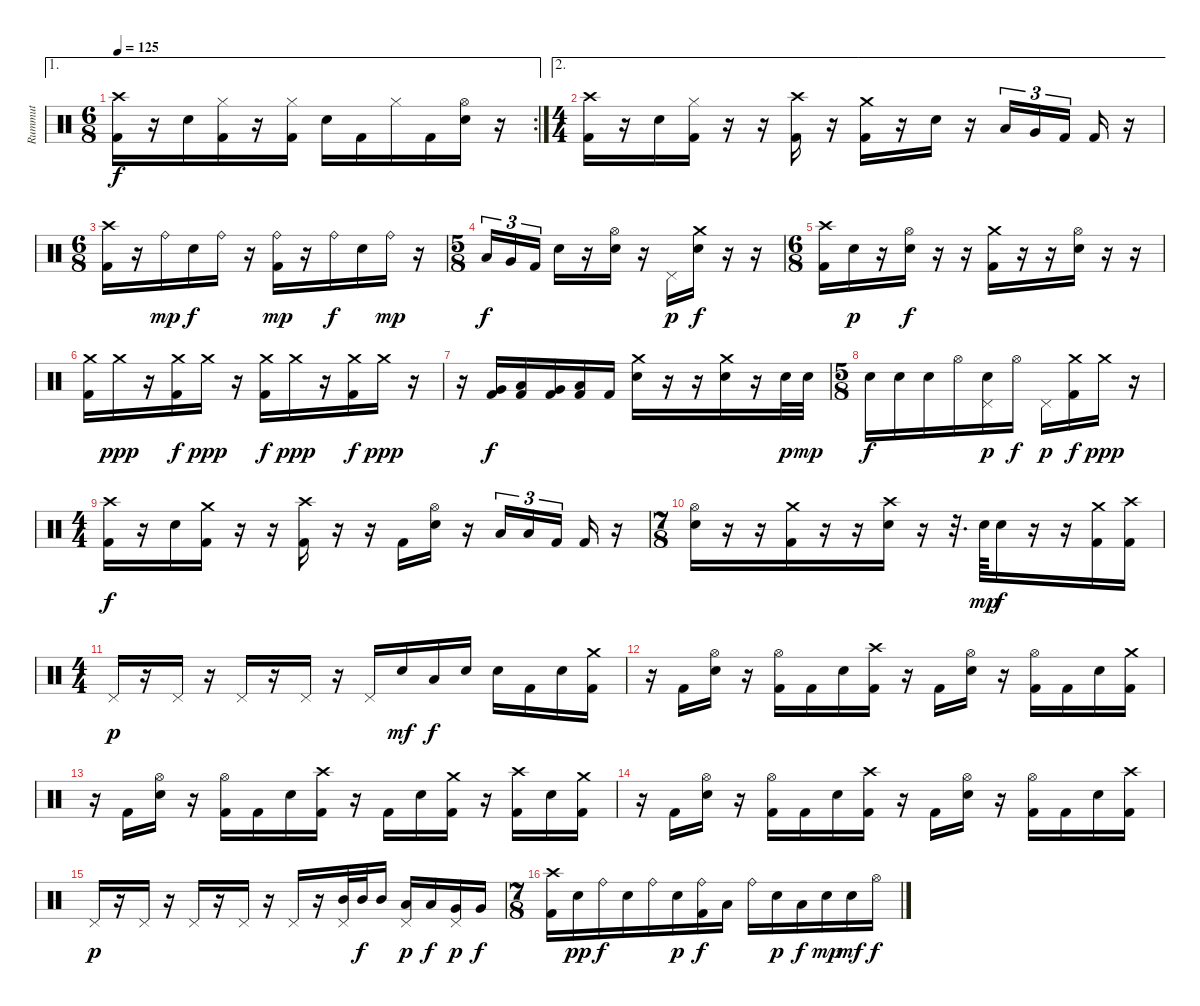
\track ("Rummut" "Rummut") {instrument percussion}
\staff {score}
\articulation defaults
\ae 1
\rc 2
\ts (6 8)
\tempo 125
\clef neutral
\ks c
("Crash high (hit)" "Kick (hit) 2").16{dy f} r.16 "Electric Snare (hit)".16 ("Hi-Hat (closed)" "Kick (hit) 2").16 r.16 ("Hi-Hat (closed)" "Kick (hit) 2").16 "Electric Snare (hit)".16 "Kick (hit) 2".16 "Hi-Hat (closed)".16 "Kick (hit) 2".16 ("Hi-Hat (open)" "Electric Snare (hit)").16 r.16 |
\ae 2
\ts (4 4)
("Crash high (hit)" "Kick (hit) 2").16 r.16 "Electric Snare (hit)".16 ("Hi-Hat (closed)" "Kick (hit) 2").16 r.16 r.16 ("Crash high (hit)" "Kick (hit) 2").16 r.16 ("Crash medium (hit)" "Kick (hit) 2").16 r.16 "Electric Snare (hit)".16 r.16 "Low Tom (hit)".16{tu (3 2)} "Very Low Tom (hit)".16{tu (3 2)} "Kick (hit) 2".16{tu (3 2)} "Kick (hit) 2".16 r.16 |
\ts (6 8)
("Crash high (hit)" "Kick (hit) 2").16 r.16 "Ride (bell)".16{dy mp} "Electric Snare (hit)".16{dy f} "Ride (bell)".16 r.16 ("Ride (bell)" "Kick (hit) 2").16{dy mp} r.16 "Ride (bell)".16{dy f} "Electric Snare (hit)".16 "Ride (bell)".16{dy mp} r.16 |
\ts (5 8)
"Low Tom (hit)".16{tu (3 2) dy f} "Very Low Tom (hit)".16{tu (3 2)} "Kick (hit) 2".16{tu (3 2)} "Electric Snare (hit)".16 r.16 ("Hi-Hat (open)" "Electric Snare (hit)").16 r.16 "Pedal Hi-Hat (hit)".16{dy p} ("Crash medium (hit)" "Electric Snare (hit)").16{dy f} r.16 r.16 |
\ts (6 8)
("Crash high (hit)" "Kick (hit) 2").16 "Electric Snare (hit)".16{dy p} r.16 ("Hi-Hat (open)" "Electric Snare (hit)").16{dy f} r.16 r.16 ("Crash medium (hit)" "Kick (hit) 2").16 r.16 r.16 ("Hi-Hat (open)" "Electric Snare (hit)").16 r.16 r.16 |
("Crash medium (hit)" "Kick (hit) 2").16 "Crash medium (hit)".16{dy ppp} r.16 ("Crash medium (hit)" "Kick (hit) 2").16{dy f} "Crash medium (hit)".16{dy ppp} r.16 ("Crash medium (hit)" "Kick (hit) 2").16{dy f} "Crash medium (hit)".16{dy ppp} r.16 ("Crash medium (hit)" "Kick (hit) 2").16{dy f} "Crash medium (hit)".16{dy ppp} r.16 |
r.16 ("Very Low Tom (hit)" "Kick (hit) 2").16{dy f} ("Low Floor Tom (hit)" "Kick (hit) 2").16 ("Very Low Tom (hit)" "Kick (hit) 2").16 ("Low Floor Tom (hit)" "Kick (hit) 2").16 "Kick (hit) 2".16 ("Crash medium (hit)" "Electric Snare (hit)").16 r.16 r.16 ("Crash medium (hit)" "Electric Snare (hit)").16 r.16 "Electric Snare (hit)".32{dy p} "Electric Snare (hit)".32{dy mp} |
\ts (5 8)
"Electric Snare (hit)".16{dy f} "Electric Snare (hit)".16 "Electric Snare (hit)".16 "Hi-Hat (open)".16 ("Pedal Hi-Hat (hit)" "Electric Snare (hit)").16{dy p} "Hi-Hat (open)".16{dy f} "Pedal Hi-Hat (hit)".16{dy p} ("Crash medium (hit)" "Kick (hit) 2").16{dy f} "Crash medium (hit)".16{dy ppp} r.16 |
\ts (4 4)
("Crash high (hit)" "Kick (hit) 2").16{dy f} r.16 "Electric Snare (hit)".16 ("Crash medium (hit)" "Kick (hit) 2").16 r.16 r.16 ("Crash high (hit)" "Kick (hit) 2").16 r.16 r.16 "Kick (hit) 2".16 ("Hi-Hat (open)" "Electric Snare (hit)").16 r.16 "Low Tom (hit)".16{tu (3 2)} "Low Floor Tom (hit)".16{tu (3 2)} "Kick (hit) 2".16{tu (3 2)} "Kick (hit) 2".16 r.16 |
\ts (7 8)
("Hi-Hat (open)" "Electric Snare (hit)").16 r.16 r.16 ("Crash medium (hit)" "Kick (hit) 2").16 r.16 r.16 ("Crash high (hit)" "Electric Snare (hit)").16 r.16 r.32{d} "Electric Snare (hit)".64{dy mp} "Electric Snare (hit)".16{dy f} r.16 r.16 ("Crash medium (hit)" "Kick (hit) 2").16 ("Crash high (hit)" "Kick (hit) 2").16 |
\ts (4 4)
"Pedal Hi-Hat (hit)".16{dy p} r.16 "Pedal Hi-Hat (hit)".16 r.16 "Pedal Hi-Hat (hit)".16 r.16 "Pedal Hi-Hat (hit)".16 r.16 "Pedal Hi-Hat (hit)".16 "Electric Snare (hit)".16{dy mf} "Low Tom (hit)".16{dy f} "Electric Snare (hit)".16 "Electric Snare (hit)".16 "Kick (hit) 2".16 "Electric Snare (hit)".16 ("Crash medium (hit)" "Kick (hit) 2").16 |
r.16 "Kick (hit) 2".16 ("Hi-Hat (open)" "Electric Snare (hit)").16 r.16 ("Hi-Hat (open)" "Kick (hit) 2").16 "Kick (hit) 2".16 "Electric Snare (hit)".16 ("Crash high (hit)" "Kick (hit) 2").16 r.16 "Kick (hit) 2".16 ("Hi-Hat (open)" "Electric Snare (hit)").16 r.16 ("Hi-Hat (open)" "Kick (hit) 2").16 "Kick (hit) 2".16 "Electric Snare (hit)".16 ("Crash medium (hit)" "Kick (hit) 2").16 |
r.16 "Kick (hit) 2".16 ("Hi-Hat (open)" "Electric Snare (hit)").16 r.16 ("Hi-Hat (open)" "Kick (hit) 2").16 "Kick (hit) 2".16 "Electric Snare (hit)".16 ("Crash high (hit)" "Kick (hit) 2").16 r.16 "Kick (hit) 2".16 "Electric Snare (hit)".16 ("Crash medium (hit)" "Kick (hit) 2").16 r.16 ("Crash high (hit)" "Kick (hit) 2").16 "Electric Snare (hit)".16 ("Crash medium (hit)" "Kick (hit) 2").16 |
r.16 "Kick (hit) 2".16 ("Hi-Hat (open)" "Electric Snare (hit)").16 r.16 ("Hi-Hat (open)" "Kick (hit) 2").16 "Kick (hit) 2".16 "Electric Snare (hit)".16 ("Crash high (hit)" "Kick (hit) 2").16 r.16 "Kick (hit) 2".16 ("Hi-Hat (open)" "Electric Snare (hit)").16 r.16 ("Hi-Hat (open)" "Kick (hit) 2").16 "Kick (hit) 2".16 "Electric Snare (hit)".16 ("Crash high (hit)" "Kick (hit) 2").16 |
"Pedal Hi-Hat (hit)".16{dy p} r.16 "Pedal Hi-Hat (hit)".16 r.16 "Pedal Hi-Hat (hit)".16 r.16 "Pedal Hi-Hat (hit)".16 r.16 "Pedal Hi-Hat (hit)".16 r.16 ("Pedal Hi-Hat (hit)" "Mid Tom (hit)").32 "Mid Tom (hit)".32{dy f} "Mid Tom (hit)".16 ("Pedal Hi-Hat (hit)" "Low Tom (hit)").16{dy p} "Low Tom (hit)".16{dy f} ("Pedal Hi-Hat (hit)" "Very Low Tom (hit)").16{dy p} "Very Low Tom (hit)".16{dy f} |
\ts (7 8)
("Crash high (hit)" "Kick (hit) 2").16 "Electric Snare (hit)".16{dy pp} "Ride (bell)".16{dy f} "Electric Snare (hit)".16 "Ride (bell)".16 "Electric Snare (hit)".16{dy p} ("Ride (bell)" "Kick (hit) 2").16{dy f} "Low Tom (hit)".16 "Ride (bell)".16 "Electric Snare (hit)".16{dy p} "Low Tom (hit)".16{dy f} "Electric Snare (hit)".16{dy mp} "Electric Snare (hit)".16{dy mf} "Hi-Hat (open)".16{dy f}
